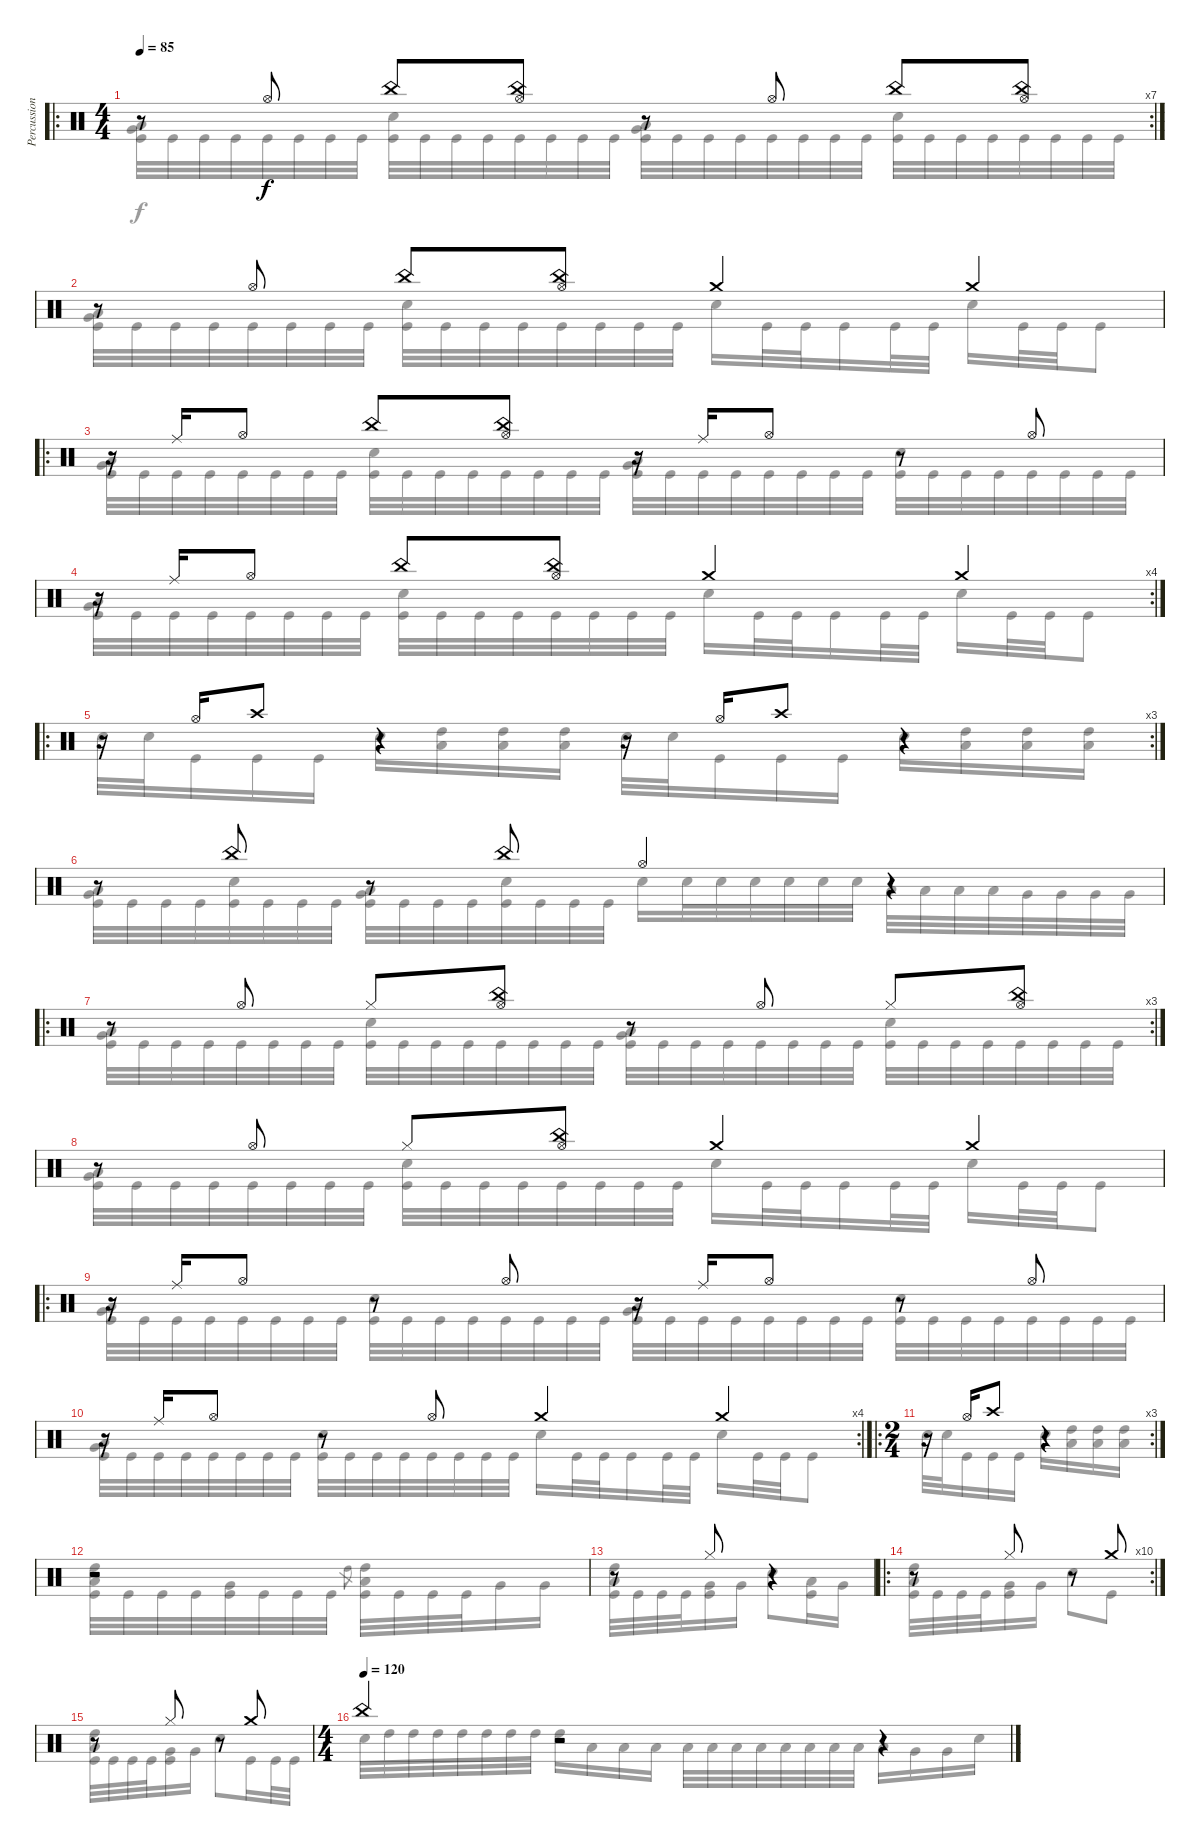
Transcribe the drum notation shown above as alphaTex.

\track ("Percussions" "Percussion") {instrument percussion}
\staff {score}
\articulation defaults
\voice
\ro
\rc 7
\ts (4 4)
\tempo 85
\clef neutral
\ks c
r.8{dy f} "Hi-Hat (open)".8 "China (hit)".8 ("Hi-Hat (open)" "China (hit)").8 r.8 "Hi-Hat (open)".8 "China (hit)".8 ("Hi-Hat (open)" "China (hit)").8 |
r.8 "Hi-Hat (open)".8 "China (hit)".8 ("Hi-Hat (open)" "China (hit)").8 "Crash medium (hit)".4 "Crash medium (hit)".4 |
\ro
r.16 "Ride (middle)".16 "Hi-Hat (open)".8 "China (hit)".8 ("China (hit)" "Hi-Hat (open)").8 r.16 "Ride (middle)".16 "Hi-Hat (open)".8 r.8 "Hi-Hat (open)".8 |
\rc 4
r.16 "Ride (middle)".16 "Hi-Hat (open)".8 "China (hit)".8 ("Hi-Hat (open)" "China (hit)").8 "Crash medium (hit)".4 "Crash medium (hit)".4 |
\ro
\rc 3
r.16 "Hi-Hat (open)".16 "Crash high (hit)".8 r.4 r.16 "Hi-Hat (open)".16 "Crash high (hit)".8 r.4 |
r.8 "China (hit)".8 r.8 "China (hit)".8 "Hi-Hat (open)".4 r.4 |
\ro
\rc 3
r.8 "Hi-Hat (open)".8 "Hi-Hat (closed)".8 ("Hi-Hat (open)" "China (hit)").8 r.8 "Hi-Hat (open)".8 "Hi-Hat (closed)".8 ("Hi-Hat (open)" "China (hit)").8 |
r.8 "Hi-Hat (open)".8 "Hi-Hat (closed)".8 ("Hi-Hat (open)" "China (hit)").8 "Crash medium (hit)".4 "Crash medium (hit)".4 |
\ro
r.16 "Ride (middle)".16 "Hi-Hat (open)".8 r.8 "Hi-Hat (open)".8 r.16 "Ride (middle)".16 "Hi-Hat (open)".8 r.8 "Hi-Hat (open)".8 |
\rc 4
r.16 "Ride (middle)".16 "Hi-Hat (open)".8 r.8 "Hi-Hat (open)".8 "Crash medium (hit)".4 "Crash medium (hit)".4 |
\ro
\rc 3
\ts (2 4)
r.16 "Hi-Hat (open)".16 "Crash high (hit)".8 r.4 |
r.2 |
r.8 "Hi-Hat (closed)".8 r.4 |
\ro
\rc 10
r.8 "Hi-Hat (closed)".8 r.8 "Crash medium (hit)".8 |
r.8 "Hi-Hat (closed)".8 r.8 "Crash medium (hit)".8 |
\ts (4 4)
\tempo (120)
"China (hit)".4 r.2 r.4
\voice
\clef neutral
\ottava regular
\simile none
\ks c
("Low Tom (hit)" "Very Low Tom (hit)" "Kick (hit)").32{dy f} "Kick (hit)".32 "Kick (hit)".32 "Kick (hit)".32 "Kick (hit)".32 "Kick (hit)".32 "Kick (hit)".32 "Kick (hit)".32 ("Snare (hit) 2" "Kick (hit)").32 "Kick (hit)".32 "Kick (hit)".32 "Kick (hit)".32 "Kick (hit)".32 "Kick (hit)".32 "Kick (hit)".32 "Kick (hit)".32 ("Low Tom (hit)" "Very Low Tom (hit)" "Kick (hit)").32 "Kick (hit)".32 "Kick (hit)".32 "Kick (hit)".32 "Kick (hit)".32 "Kick (hit)".32 "Kick (hit)".32 "Kick (hit)".32 ("Snare (hit) 2" "Kick (hit)").32 "Kick (hit)".32 "Kick (hit)".32 "Kick (hit)".32 "Kick (hit)".32 "Kick (hit)".32 "Kick (hit)".32 "Kick (hit)".32 |
("Low Tom (hit)" "Very Low Tom (hit)" "Kick (hit)").32 "Kick (hit)".32 "Kick (hit)".32 "Kick (hit)".32 "Kick (hit)".32 "Kick (hit)".32 "Kick (hit)".32 "Kick (hit)".32 ("Snare (hit) 2" "Kick (hit)").32 "Kick (hit)".32 "Kick (hit)".32 "Kick (hit)".32 "Kick (hit)".32 "Kick (hit)".32 "Kick (hit)".32 "Kick (hit)".32 "Snare (hit) 2".16 "Kick (hit)".32 "Kick (hit)".32 "Kick (hit)".16 "Kick (hit)".32 "Kick (hit)".32 "Snare (hit) 2".16 "Kick (hit)".32 "Kick (hit)".32 "Kick (hit)".8 |
("Low Tom (hit)" "Very Low Tom (hit)" "Kick (hit)").32 "Kick (hit)".32 "Kick (hit)".32 "Kick (hit)".32 "Kick (hit)".32 "Kick (hit)".32 "Kick (hit)".32 "Kick (hit)".32 ("Snare (hit) 2" "Kick (hit)").32 "Kick (hit)".32 "Kick (hit)".32 "Kick (hit)".32 "Kick (hit)".32 "Kick (hit)".32 "Kick (hit)".32 "Kick (hit)".32 ("Low Tom (hit)" "Very Low Tom (hit)" "Kick (hit)").32 "Kick (hit)".32 "Kick (hit)".32 "Kick (hit)".32 "Kick (hit)".32 "Kick (hit)".32 "Kick (hit)".32 "Kick (hit)".32 ("Snare (hit) 2" "Kick (hit)").32 "Kick (hit)".32 "Kick (hit)".32 "Kick (hit)".32 "Kick (hit)".32 "Kick (hit)".32 "Kick (hit)".32 "Kick (hit)".32 |
("Low Tom (hit)" "Very Low Tom (hit)" "Kick (hit)").32 "Kick (hit)".32 "Kick (hit)".32 "Kick (hit)".32 "Kick (hit)".32 "Kick (hit)".32 "Kick (hit)".32 "Kick (hit)".32 ("Snare (hit) 2" "Kick (hit)").32 "Kick (hit)".32 "Kick (hit)".32 "Kick (hit)".32 "Kick (hit)".32 "Kick (hit)".32 "Kick (hit)".32 "Kick (hit)".32 "Snare (hit) 2".16 "Kick (hit)".32 "Kick (hit)".32 "Kick (hit)".16 "Kick (hit)".32 "Kick (hit)".32 "Snare (hit) 2".16 "Kick (hit)".32 "Kick (hit)".32 "Kick (hit)".8 |
"Snare (hit) 2".32 "Snare (hit) 2".32 "Kick (hit)".16 "Kick (hit)".16 "Kick (hit)".16 "Snare (hit) 2".16 ("High Tom (hit)" "Low Tom (hit)").16 ("High Tom (hit)" "Low Tom (hit)").16 ("High Tom (hit)" "Low Tom (hit)").16 "Snare (hit) 2".32 "Snare (hit) 2".32 "Kick (hit)".16 "Kick (hit)".16 "Kick (hit)".16 "Snare (hit) 2".16 ("High Tom (hit)" "Low Tom (hit)").16 ("High Tom (hit)" "Low Tom (hit)").16 ("High Tom (hit)" "Low Tom (hit)").16 |
("Low Tom (hit)" "Very Low Tom (hit)" "Kick (hit)").32 "Kick (hit)".32 "Kick (hit)".32 "Kick (hit)".32 ("Snare (hit) 2" "Kick (hit)").32 "Kick (hit)".32 "Kick (hit)".32 "Kick (hit)".32 ("Low Tom (hit)" "Very Low Tom (hit)" "Kick (hit)").32 "Kick (hit)".32 "Kick (hit)".32 "Kick (hit)".32 ("Snare (hit) 2" "Kick (hit)").32 "Kick (hit)".32 "Kick (hit)".32 "Kick (hit)".32 "Snare (hit) 2".16 "Snare (hit) 2".32 "Snare (hit) 2".32 "Snare (hit) 2".32 "Snare (hit) 2".32 "Snare (hit) 2".32 "Snare (hit) 2".32 "Low Tom (hit)".32 "Low Tom (hit)".32 "Low Tom (hit)".32 "Low Tom (hit)".32 "Very Low Tom (hit)".32 "Very Low Tom (hit)".32 "Very Low Tom (hit)".32 "Very Low Tom (hit)".32 |
("Low Tom (hit)" "Very Low Tom (hit)" "Kick (hit)").32 "Kick (hit)".32 "Kick (hit)".32 "Kick (hit)".32 "Kick (hit)".32 "Kick (hit)".32 "Kick (hit)".32 "Kick (hit)".32 ("Snare (hit) 2" "Kick (hit)").32 "Kick (hit)".32 "Kick (hit)".32 "Kick (hit)".32 "Kick (hit)".32 "Kick (hit)".32 "Kick (hit)".32 "Kick (hit)".32 ("Low Tom (hit)" "Very Low Tom (hit)" "Kick (hit)").32 "Kick (hit)".32 "Kick (hit)".32 "Kick (hit)".32 "Kick (hit)".32 "Kick (hit)".32 "Kick (hit)".32 "Kick (hit)".32 ("Snare (hit) 2" "Kick (hit)").32 "Kick (hit)".32 "Kick (hit)".32 "Kick (hit)".32 "Kick (hit)".32 "Kick (hit)".32 "Kick (hit)".32 "Kick (hit)".32 |
("Low Tom (hit)" "Very Low Tom (hit)" "Kick (hit)").32 "Kick (hit)".32 "Kick (hit)".32 "Kick (hit)".32 "Kick (hit)".32 "Kick (hit)".32 "Kick (hit)".32 "Kick (hit)".32 ("Snare (hit) 2" "Kick (hit)").32 "Kick (hit)".32 "Kick (hit)".32 "Kick (hit)".32 "Kick (hit)".32 "Kick (hit)".32 "Kick (hit)".32 "Kick (hit)".32 "Snare (hit) 2".16 "Kick (hit)".32 "Kick (hit)".32 "Kick (hit)".16 "Kick (hit)".32 "Kick (hit)".32 "Snare (hit) 2".16 "Kick (hit)".32 "Kick (hit)".32 "Kick (hit)".8 |
("Low Tom (hit)" "Very Low Tom (hit)" "Kick (hit)").32 "Kick (hit)".32 "Kick (hit)".32 "Kick (hit)".32 "Kick (hit)".32 "Kick (hit)".32 "Kick (hit)".32 "Kick (hit)".32 ("Snare (hit) 2" "Kick (hit)").32 "Kick (hit)".32 "Kick (hit)".32 "Kick (hit)".32 "Kick (hit)".32 "Kick (hit)".32 "Kick (hit)".32 "Kick (hit)".32 ("Low Tom (hit)" "Very Low Tom (hit)" "Kick (hit)").32 "Kick (hit)".32 "Kick (hit)".32 "Kick (hit)".32 "Kick (hit)".32 "Kick (hit)".32 "Kick (hit)".32 "Kick (hit)".32 ("Snare (hit) 2" "Kick (hit)").32 "Kick (hit)".32 "Kick (hit)".32 "Kick (hit)".32 "Kick (hit)".32 "Kick (hit)".32 "Kick (hit)".32 "Kick (hit)".32 |
("Low Tom (hit)" "Very Low Tom (hit)" "Kick (hit)").32 "Kick (hit)".32 "Kick (hit)".32 "Kick (hit)".32 "Kick (hit)".32 "Kick (hit)".32 "Kick (hit)".32 "Kick (hit)".32 ("Snare (hit) 2" "Kick (hit)").32 "Kick (hit)".32 "Kick (hit)".32 "Kick (hit)".32 "Kick (hit)".32 "Kick (hit)".32 "Kick (hit)".32 "Kick (hit)".32 "Snare (hit) 2".16 "Kick (hit)".32 "Kick (hit)".32 "Kick (hit)".16 "Kick (hit)".32 "Kick (hit)".32 "Snare (hit) 2".16 "Kick (hit)".32 "Kick (hit)".32 "Kick (hit)".8 |
"Snare (hit) 2".32 "Snare (hit) 2".32 "Kick (hit)".16 "Kick (hit)".16 "Kick (hit)".16 "Snare (hit) 2".16 ("High Tom (hit)" "Low Tom (hit)").16 ("High Tom (hit)" "Low Tom (hit)").16 ("High Tom (hit)" "Low Tom (hit)").16 |
("High Tom (hit)" "Low Tom (hit)" "Kick (hit)").32 "Kick (hit)".32 "Kick (hit)".32 "Kick (hit)".32 ("Very Low Tom (hit)" "Kick (hit)").32 "Kick (hit)".32 "Kick (hit)".32 "Kick (hit)".32 "High Tom (hit)".8{gr} ("High Tom (hit)" "Low Tom (hit)" "Kick (hit)").32 "Kick (hit)".32 "Kick (hit)".32 "Kick (hit)".32 "Very Low Tom (hit)".16 "Very Low Tom (hit)".16 |
("High Tom (hit)" "Low Tom (hit)" "Kick (hit)").32 "Kick (hit)".32 "Kick (hit)".32 "Kick (hit)".32 ("Very Low Tom (hit)" "Kick (hit)").16 "Very Low Tom (hit)".16 "Snare (hit) 2".8 ("Low Tom (hit)" "Kick (hit)").16 "Very Low Tom (hit)".16 |
("High Tom (hit)" "Low Tom (hit)" "Kick (hit)").32 "Kick (hit)".32 "Kick (hit)".32 "Kick (hit)".32 ("Very Low Tom (hit)" "Kick (hit)").16 "Very Low Tom (hit)".16 "Snare (hit) 2".8 "Kick (hit)".8 |
("High Tom (hit)" "Low Tom (hit)" "Kick (hit)").32 "Kick (hit)".32 "Kick (hit)".32 "Kick (hit)".32 ("Very Low Tom (hit)" "Kick (hit)").16 "Very Low Tom (hit)".16 "Snare (hit) 2".8 "Kick (hit)".16 "Kick (hit)".32 "Kick (hit)".32 |
"Snare (hit) 2".32 "High Tom (hit)".32 "High Tom (hit)".32 "High Tom (hit)".32 "High Tom (hit)".32 "High Tom (hit)".32 "High Tom (hit)".32 "High Tom (hit)".32 "High Tom (hit)".16 "Low Tom (hit)".16 "Low Tom (hit)".16 "Low Tom (hit)".16 "Low Tom (hit)".32 "Low Tom (hit)".32 "Low Tom (hit)".32 "Low Tom (hit)".32 "Low Tom (hit)".32 "Low Tom (hit)".32 "Low Tom (hit)".32 "Low Tom (hit)".32 "Low Tom (hit)".16 "Very Low Tom (hit)".16 "Very Low Tom (hit)".16 "Snare (hit) 2".16
